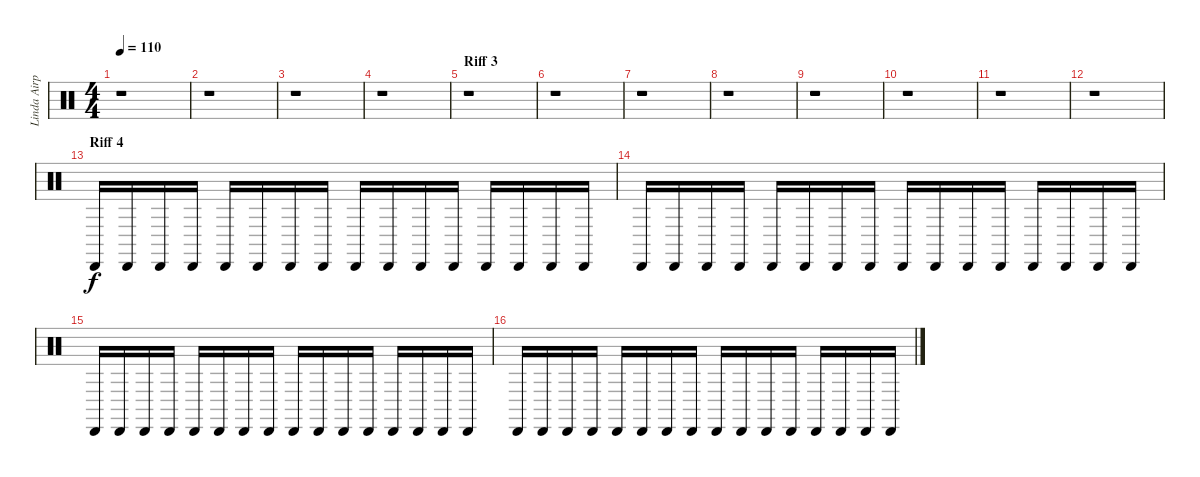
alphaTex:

\track ("Linda Airplane" "Linda Airp") {instrument percussion}
\staff {score}
\articulation defaults
\ts (4 4)
\tempo 110
\clef neutral
\ks c
r.1{dy f} |
r.1 |
r.1 |
r.1 |
\section ("" "Riff 3")
r.1 |
r.1 |
r.1 |
r.1 |
r.1 |
r.1 |
r.1 |
r.1 |
\section ("" "Riff 4")
"Cabasa (hit)".16 "Cabasa (hit)".16 "Cabasa (hit)".16 "Cabasa (hit)".16 "Cabasa (hit)".16 "Cabasa (hit)".16 "Cabasa (hit)".16 "Cabasa (hit)".16 "Cabasa (hit)".16 "Cabasa (hit)".16 "Cabasa (hit)".16 "Cabasa (hit)".16 "Cabasa (hit)".16 "Cabasa (hit)".16 "Cabasa (hit)".16 "Cabasa (hit)".16 |
"Cabasa (hit)".16 "Cabasa (hit)".16 "Cabasa (hit)".16 "Cabasa (hit)".16 "Cabasa (hit)".16 "Cabasa (hit)".16 "Cabasa (hit)".16 "Cabasa (hit)".16 "Cabasa (hit)".16 "Cabasa (hit)".16 "Cabasa (hit)".16 "Cabasa (hit)".16 "Cabasa (hit)".16 "Cabasa (hit)".16 "Cabasa (hit)".16 "Cabasa (hit)".16 |
"Cabasa (hit)".16 "Cabasa (hit)".16 "Cabasa (hit)".16 "Cabasa (hit)".16 "Cabasa (hit)".16 "Cabasa (hit)".16 "Cabasa (hit)".16 "Cabasa (hit)".16 "Cabasa (hit)".16 "Cabasa (hit)".16 "Cabasa (hit)".16 "Cabasa (hit)".16 "Cabasa (hit)".16 "Cabasa (hit)".16 "Cabasa (hit)".16 "Cabasa (hit)".16 |
"Cabasa (hit)".16 "Cabasa (hit)".16 "Cabasa (hit)".16 "Cabasa (hit)".16 "Cabasa (hit)".16 "Cabasa (hit)".16 "Cabasa (hit)".16 "Cabasa (hit)".16 "Cabasa (hit)".16 "Cabasa (hit)".16 "Cabasa (hit)".16 "Cabasa (hit)".16 "Cabasa (hit)".16 "Cabasa (hit)".16 "Cabasa (hit)".16 "Cabasa (hit)".16
